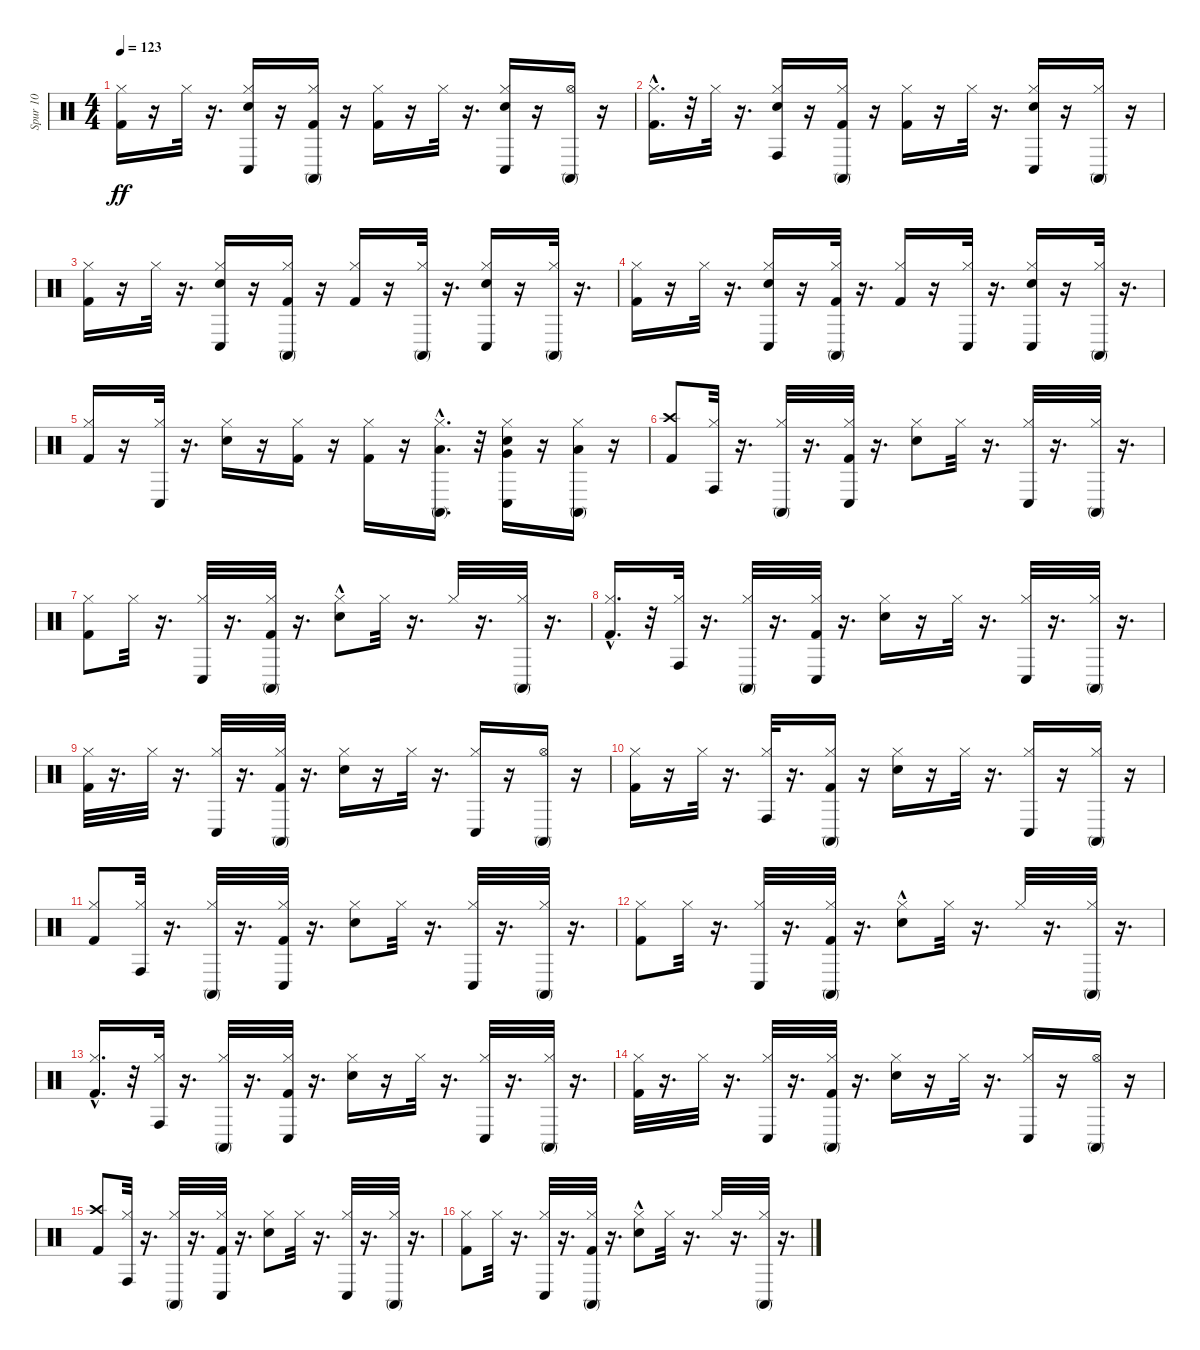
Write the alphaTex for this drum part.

\track ("Spur 10" "Spur 10") {instrument percussion}
\staff {score}
\articulation defaults
\ts (4 4)
\tempo 123
\clef neutral
\ks c
("Kick (hit) 2" "Hi-Hat (closed)").16{dy ff} r.16 "Hi-Hat (closed)".32 r.16{d} ("Snare (hit) 2" "Conga low (hit)" "Hi-Hat (closed)").16 r.16 ("Kick (hit) 2" "Conga high (mute)" "Hi-Hat (closed)").16 r.16 ("Kick (hit) 2" "Hi-Hat (closed)").16 r.16 "Hi-Hat (closed)".32 r.16{d} ("Snare (hit) 2" "Conga low (hit)" "Hi-Hat (closed)").16 r.16 ("Conga high (mute)" "Hi-Hat (open)").16 r.16 |
("Kick (hit) 2"{hac} "Hi-Hat (closed)").16{d} r.32 "Hi-Hat (closed)".32 r.16{d} ("Snare (hit) 2" "Conga high (hit)" "Hi-Hat (closed)").16 r.16 ("Kick (hit) 2" "Conga high (mute)" "Hi-Hat (closed)").16 r.16 ("Kick (hit) 2" "Hi-Hat (closed)").16 r.16 "Hi-Hat (closed)".32 r.16{d} ("Snare (hit) 2" "Conga low (hit)" "Hi-Hat (closed)").16 r.16 ("Conga high (mute)" "Hi-Hat (closed)").16 r.16 |
("Kick (hit) 2" "Hi-Hat (closed)").16 r.16 "Hi-Hat (closed)".32 r.16{d} ("Snare (hit) 2" "Conga low (hit)" "Hi-Hat (closed)").16 r.16 ("Kick (hit) 2" "Conga high (mute)" "Hi-Hat (closed)").16 r.16 ("Kick (hit) 2" "Hi-Hat (closed)").16 r.16 ("Conga high (mute)" "Hi-Hat (closed)").32 r.16{d} ("Snare (hit) 2" "Conga low (hit)" "Hi-Hat (closed)").16 r.16 ("Conga high (mute)" "Hi-Hat (closed)").32 r.16{d} |
("Kick (hit) 2" "Hi-Hat (closed)").16 r.16 "Hi-Hat (closed)".32 r.16{d} ("Snare (hit) 2" "Conga low (hit)" "Hi-Hat (closed)").16 r.16 ("Kick (hit) 2" "Conga high (mute)" "Hi-Hat (closed)").32 r.16{d} ("Kick (hit) 2" "Hi-Hat (closed)").16 r.16 ("Conga low (hit)" "Hi-Hat (closed)").32 r.16{d} ("Snare (hit) 2" "Conga low (hit)" "Hi-Hat (closed)").16 r.16 ("Hi-Hat (closed)" "Conga high (mute)").32 r.16{d} |
("Kick (hit) 2" "Hi-Hat (closed)").16 r.16 ("Conga low (hit)" "Hi-Hat (closed)").32 r.16{d} ("Snare (hit) 2" "Hi-Hat (closed)").16 r.16 ("Kick (hit) 2" "Hi-Hat (closed)").16 r.16 ("Kick (hit) 2" "Hi-Hat (closed)").16 r.16 ("Low Tom (hit)"{hac} "Conga high (mute)" "Hi-Hat (closed)").16{d} r.32 ("Snare (hit) 2" "Conga low (hit)" "Very Low Tom (hit)" "Hi-Hat (closed)").16 r.16 ("Hi-Hat (closed)" "Conga high (mute)" "Low Floor Tom (hit)").16 r.16 |
("Kick (hit) 2" "Crash high (hit)").8 ("Conga high (hit)" "Hi-Hat (closed)").32 r.16{d} ("Conga high (mute)" "Hi-Hat (closed)").32 r.16{d} ("Kick (hit) 2" "Conga low (hit)" "Hi-Hat (closed)").32 r.16{d} ("Snare (hit) 2" "Hi-Hat (closed)").8 "Hi-Hat (closed)".32 r.16{d} ("Conga low (hit)" "Hi-Hat (closed)").32 r.16{d} ("Conga high (mute)" "Hi-Hat (closed)").32 r.16{d} |
("Kick (hit) 2" "Hi-Hat (closed)").8 "Hi-Hat (closed)".32 r.16{d} ("Hi-Hat (closed)" "Conga low (hit)").32 r.16{d} ("Kick (hit) 2" "Hi-Hat (closed)" "Conga high (mute)").32 r.16{d} ("Snare (hit) 2"{hac} "Hi-Hat (closed)").8 "Hi-Hat (closed)".32 r.16{d} "Hi-Hat (closed)".32 r.16{d} ("Conga high (mute)" "Hi-Hat (closed)").32 r.16{d} |
("Kick (hit) 2"{hac} "Hi-Hat (closed)").16{d} r.32 ("Conga high (hit)" "Hi-Hat (closed)").32 r.16{d} ("Conga high (mute)" "Hi-Hat (closed)").32 r.16{d} ("Kick (hit) 2" "Conga low (hit)" "Hi-Hat (closed)").32 r.16{d} ("Snare (hit) 2" "Hi-Hat (closed)").16 r.16 "Hi-Hat (closed)".32 r.16{d} ("Conga low (hit)" "Hi-Hat (closed)").32 r.16{d} ("Conga high (mute)" "Hi-Hat (closed)").32 r.16{d} |
("Kick (hit) 2" "Hi-Hat (closed)").32 r.16{d} "Hi-Hat (closed)".32 r.16{d} ("Conga low (hit)" "Hi-Hat (closed)").32 r.16{d} ("Kick (hit) 2" "Conga high (mute)" "Hi-Hat (closed)").32 r.16{d} ("Snare (hit) 2" "Hi-Hat (closed)").16 r.16 "Hi-Hat (closed)".32 r.16{d} ("Conga low (hit)" "Hi-Hat (closed)").16 r.16 ("Conga high (mute)" "Hi-Hat (open)").16 r.16 |
("Kick (hit) 2" "Hi-Hat (closed)").16 r.16 "Hi-Hat (closed)".32 r.16{d} ("Conga high (hit)" "Hi-Hat (closed)").32 r.16{d} ("Kick (hit) 2" "Conga high (mute)" "Hi-Hat (closed)").16 r.16 ("Snare (hit) 2" "Hi-Hat (closed)").16 r.16 "Hi-Hat (closed)".32 r.16{d} ("Conga low (hit)" "Hi-Hat (closed)").16 r.16 ("Conga high (mute)" "Hi-Hat (closed)").16 r.16 |
("Kick (hit) 2" "Hi-Hat (closed)").8 ("Conga high (hit)" "Hi-Hat (closed)").32 r.16{d} ("Conga high (mute)" "Hi-Hat (closed)").32 r.16{d} ("Kick (hit) 2" "Conga low (hit)" "Hi-Hat (closed)").32 r.16{d} ("Snare (hit) 2" "Hi-Hat (closed)").8 "Hi-Hat (closed)".32 r.16{d} ("Conga low (hit)" "Hi-Hat (closed)").32 r.16{d} ("Conga high (mute)" "Hi-Hat (closed)").32 r.16{d} |
("Kick (hit) 2" "Hi-Hat (closed)").8 "Hi-Hat (closed)".32 r.16{d} ("Hi-Hat (closed)" "Conga low (hit)").32 r.16{d} ("Kick (hit) 2" "Hi-Hat (closed)" "Conga high (mute)").32 r.16{d} ("Snare (hit) 2"{hac} "Hi-Hat (closed)").8 "Hi-Hat (closed)".32 r.16{d} "Hi-Hat (closed)".32 r.16{d} ("Conga high (mute)" "Hi-Hat (closed)").32 r.16{d} |
("Kick (hit) 2"{hac} "Hi-Hat (closed)").16{d} r.32 ("Conga high (hit)" "Hi-Hat (closed)").32 r.16{d} ("Conga high (mute)" "Hi-Hat (closed)").32 r.16{d} ("Kick (hit) 2" "Conga low (hit)" "Hi-Hat (closed)").32 r.16{d} ("Snare (hit) 2" "Hi-Hat (closed)").16 r.16 "Hi-Hat (closed)".32 r.16{d} ("Conga low (hit)" "Hi-Hat (closed)").32 r.16{d} ("Conga high (mute)" "Hi-Hat (closed)").32 r.16{d} |
("Kick (hit) 2" "Hi-Hat (closed)").32 r.16{d} "Hi-Hat (closed)".32 r.16{d} ("Conga low (hit)" "Hi-Hat (closed)").32 r.16{d} ("Kick (hit) 2" "Conga high (mute)" "Hi-Hat (closed)").32 r.16{d} ("Snare (hit) 2" "Hi-Hat (closed)").16 r.16 "Hi-Hat (closed)".32 r.16{d} ("Conga low (hit)" "Hi-Hat (closed)").16 r.16 ("Conga high (mute)" "Hi-Hat (open)").16 r.16 |
("Kick (hit) 2" "Crash high (hit)").8 ("Conga high (hit)" "Hi-Hat (closed)").32 r.16{d} ("Conga high (mute)" "Hi-Hat (closed)").32 r.16{d} ("Kick (hit) 2" "Conga low (hit)" "Hi-Hat (closed)").32 r.16{d} ("Snare (hit) 2" "Hi-Hat (closed)").8 "Hi-Hat (closed)".32 r.16{d} ("Conga low (hit)" "Hi-Hat (closed)").32 r.16{d} ("Conga high (mute)" "Hi-Hat (closed)").32 r.16{d} |
("Kick (hit) 2" "Hi-Hat (closed)").8 "Hi-Hat (closed)".32 r.16{d} ("Hi-Hat (closed)" "Conga low (hit)").32 r.16{d} ("Kick (hit) 2" "Hi-Hat (closed)" "Conga high (mute)").32 r.16{d} ("Snare (hit) 2"{hac} "Hi-Hat (closed)").8 "Hi-Hat (closed)".32 r.16{d} "Hi-Hat (closed)".32 r.16{d} ("Conga high (mute)" "Hi-Hat (closed)").32 r.16{d}
